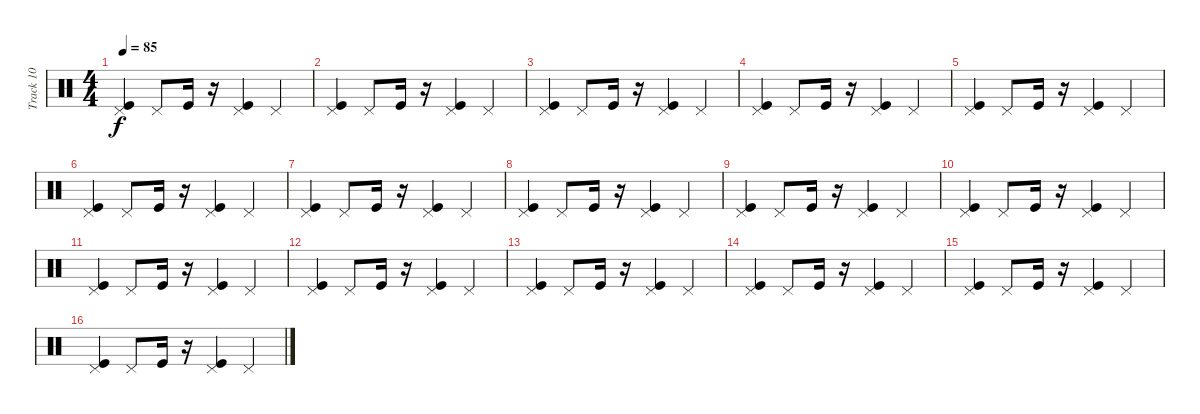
\track ("Track 10" "Track 10") {instrument percussion}
\staff {score}
\articulation defaults
\ts (4 4)
\tempo 85
\clef neutral
\ks c
("Kick (hit)" "Pedal Hi-Hat (hit)").4{dy f} "Pedal Hi-Hat (hit)".8 "Kick (hit)".16 r.16 ("Kick (hit)" "Pedal Hi-Hat (hit)").4 "Pedal Hi-Hat (hit)".4 |
("Kick (hit)" "Pedal Hi-Hat (hit)").4 "Pedal Hi-Hat (hit)".8 "Kick (hit)".16 r.16 ("Kick (hit)" "Pedal Hi-Hat (hit)").4 "Pedal Hi-Hat (hit)".4 |
("Kick (hit)" "Pedal Hi-Hat (hit)").4 "Pedal Hi-Hat (hit)".8 "Kick (hit)".16 r.16 ("Kick (hit)" "Pedal Hi-Hat (hit)").4 "Pedal Hi-Hat (hit)".4 |
("Kick (hit)" "Pedal Hi-Hat (hit)").4 "Pedal Hi-Hat (hit)".8 "Kick (hit)".16 r.16 ("Kick (hit)" "Pedal Hi-Hat (hit)").4 "Pedal Hi-Hat (hit)".4 |
("Kick (hit)" "Pedal Hi-Hat (hit)").4 "Pedal Hi-Hat (hit)".8 "Kick (hit)".16 r.16 ("Kick (hit)" "Pedal Hi-Hat (hit)").4 "Pedal Hi-Hat (hit)".4 |
("Kick (hit)" "Pedal Hi-Hat (hit)").4 "Pedal Hi-Hat (hit)".8 "Kick (hit)".16 r.16 ("Kick (hit)" "Pedal Hi-Hat (hit)").4 "Pedal Hi-Hat (hit)".4 |
("Kick (hit)" "Pedal Hi-Hat (hit)").4 "Pedal Hi-Hat (hit)".8 "Kick (hit)".16 r.16 ("Kick (hit)" "Pedal Hi-Hat (hit)").4 "Pedal Hi-Hat (hit)".4 |
("Kick (hit)" "Pedal Hi-Hat (hit)").4 "Pedal Hi-Hat (hit)".8 "Kick (hit)".16 r.16 ("Kick (hit)" "Pedal Hi-Hat (hit)").4 "Pedal Hi-Hat (hit)".4 |
("Kick (hit)" "Pedal Hi-Hat (hit)").4 "Pedal Hi-Hat (hit)".8 "Kick (hit)".16 r.16 ("Kick (hit)" "Pedal Hi-Hat (hit)").4 "Pedal Hi-Hat (hit)".4 |
("Kick (hit)" "Pedal Hi-Hat (hit)").4 "Pedal Hi-Hat (hit)".8 "Kick (hit)".16 r.16 ("Kick (hit)" "Pedal Hi-Hat (hit)").4 "Pedal Hi-Hat (hit)".4 |
("Kick (hit)" "Pedal Hi-Hat (hit)").4 "Pedal Hi-Hat (hit)".8 "Kick (hit)".16 r.16 ("Kick (hit)" "Pedal Hi-Hat (hit)").4 "Pedal Hi-Hat (hit)".4 |
("Kick (hit)" "Pedal Hi-Hat (hit)").4 "Pedal Hi-Hat (hit)".8 "Kick (hit)".16 r.16 ("Kick (hit)" "Pedal Hi-Hat (hit)").4 "Pedal Hi-Hat (hit)".4 |
("Kick (hit)" "Pedal Hi-Hat (hit)").4 "Pedal Hi-Hat (hit)".8 "Kick (hit)".16 r.16 ("Kick (hit)" "Pedal Hi-Hat (hit)").4 "Pedal Hi-Hat (hit)".4 |
("Kick (hit)" "Pedal Hi-Hat (hit)").4 "Pedal Hi-Hat (hit)".8 "Kick (hit)".16 r.16 ("Kick (hit)" "Pedal Hi-Hat (hit)").4 "Pedal Hi-Hat (hit)".4 |
("Kick (hit)" "Pedal Hi-Hat (hit)").4 "Pedal Hi-Hat (hit)".8 "Kick (hit)".16 r.16 ("Kick (hit)" "Pedal Hi-Hat (hit)").4 "Pedal Hi-Hat (hit)".4 |
("Kick (hit)" "Pedal Hi-Hat (hit)").4 "Pedal Hi-Hat (hit)".8 "Kick (hit)".16 r.16 ("Kick (hit)" "Pedal Hi-Hat (hit)").4 "Pedal Hi-Hat (hit)".4
